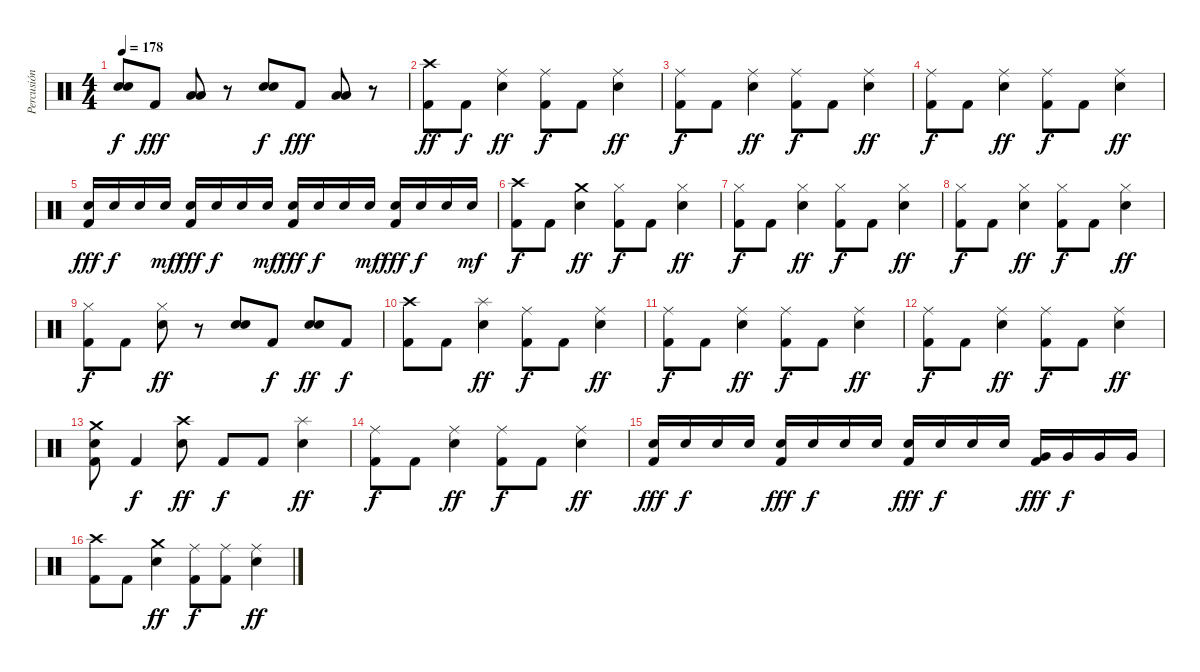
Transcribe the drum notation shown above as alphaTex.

\track ("Percusión" "Percusión") {instrument percussion}
\staff {score}
\articulation defaults
\ts (4 4)
\tempo 178
\clef neutral
\ks c
("Snare (hit) 2" "Snare (hit) 2").8{dy f} "Kick (hit) 2".8{dy fff} ("Low Tom (hit)" "Low Tom (hit)").8 r.8 ("Snare (hit) 2" "Snare (hit) 2").8{dy f} "Kick (hit) 2".8{dy fff} ("Low Tom (hit)" "Low Tom (hit)").8 r.8 |
("Crash high (hit)" "Kick (hit) 2").8{dy ff} "Kick (hit) 2".8{dy f} ("Ride (middle)" "Snare (hit) 2").4{dy ff} ("Ride (middle)" "Kick (hit) 2").8{dy f} "Kick (hit) 2".8 ("Ride (middle)" "Snare (hit) 2").4{dy ff} |
("Ride (middle)" "Kick (hit) 2").8{dy f} "Kick (hit) 2".8 ("Ride (middle)" "Snare (hit) 2").4{dy ff} ("Ride (middle)" "Kick (hit) 2").8{dy f} "Kick (hit) 2".8 ("Ride (middle)" "Snare (hit) 2").4{dy ff} |
("Ride (middle)" "Kick (hit) 2").8{dy f} "Kick (hit) 2".8 ("Ride (middle)" "Snare (hit) 2").4{dy ff} ("Ride (middle)" "Kick (hit) 2").8{dy f} "Kick (hit) 2".8 ("Ride (middle)" "Snare (hit) 2").4{dy ff} |
("Snare (hit) 2" "Kick (hit) 2").16{dy fff} "Snare (hit) 2".16{dy f} "Snare (hit) 2".16 "Snare (hit) 2".16{dy mf} ("Snare (hit) 2" "Kick (hit) 2").16{dy fff} "Snare (hit) 2".16{dy f} "Snare (hit) 2".16 "Snare (hit) 2".16{dy mf} ("Snare (hit) 2" "Kick (hit) 2").16{dy fff} "Snare (hit) 2".16{dy f} "Snare (hit) 2".16 "Snare (hit) 2".16{dy mf} ("Snare (hit) 2" "Kick (hit) 2").16{dy fff} "Snare (hit) 2".16{dy f} "Snare (hit) 2".16 "Snare (hit) 2".16{dy mf} |
("Crash high (hit)" "Kick (hit) 2").8{dy f} "Kick (hit) 2".8 ("Crash medium (hit)" "Snare (hit) 2").4{dy ff} ("Hi-Hat (closed)" "Kick (hit) 2").8{dy f} "Kick (hit) 2".8 ("Hi-Hat (closed)" "Snare (hit) 2").4{dy ff} |
("Hi-Hat (closed)" "Kick (hit) 2").8{dy f} "Kick (hit) 2".8 ("Hi-Hat (closed)" "Snare (hit) 2").4{dy ff} ("Hi-Hat (closed)" "Kick (hit) 2").8{dy f} "Kick (hit) 2".8 ("Hi-Hat (closed)" "Snare (hit) 2").4{dy ff} |
("Hi-Hat (closed)" "Kick (hit) 2").8{dy f} "Kick (hit) 2".8 ("Hi-Hat (closed)" "Snare (hit) 2").4{dy ff} ("Hi-Hat (closed)" "Kick (hit) 2").8{dy f} "Kick (hit) 2".8 ("Hi-Hat (closed)" "Snare (hit) 2").4{dy ff} |
("Hi-Hat (closed)" "Kick (hit) 2").8{dy f} "Kick (hit) 2".8 ("Hi-Hat (closed)" "Snare (hit) 2").8{dy ff} r.8 ("Snare (hit) 2" "Snare (hit) 2").8 "Kick (hit) 2".8{dy f} ("Snare (hit) 2" "Snare (hit) 2").8{dy ff} "Kick (hit) 2".8{dy f} |
("Crash high (hit)" "Kick (hit) 2").8 "Kick (hit) 2".8 ("Splash (hit)" "Snare (hit) 2").4{dy ff} ("Ride (middle)" "Kick (hit) 2").8{dy f} "Kick (hit) 2".8 ("Ride (middle)" "Snare (hit) 2").4{dy ff} |
("Ride (middle)" "Kick (hit) 2").8{dy f} "Kick (hit) 2".8 ("Ride (middle)" "Snare (hit) 2").4{dy ff} ("Ride (middle)" "Kick (hit) 2").8{dy f} "Kick (hit) 2".8 ("Ride (middle)" "Snare (hit) 2").4{dy ff} |
("Ride (middle)" "Kick (hit) 2").8{dy f} "Kick (hit) 2".8 ("Ride (middle)" "Snare (hit) 2").4{dy ff} ("Ride (middle)" "Kick (hit) 2").8{dy f} "Kick (hit) 2".8 ("Ride (middle)" "Snare (hit) 2").4{dy ff} |
("Kick (hit) 2" "Snare (hit) 2" "Crash medium (hit)").8 "Kick (hit) 2".4{dy f} ("Snare (hit) 2" "Crash high (hit)").8{dy ff} "Kick (hit) 2".8{dy f} "Kick (hit) 2".8 ("Splash (hit)" "Snare (hit) 2").4{dy ff} |
("Ride (middle)" "Kick (hit) 2").8{dy f} "Kick (hit) 2".8 ("Ride (middle)" "Snare (hit) 2").4{dy ff} ("Ride (middle)" "Kick (hit) 2").8{dy f} "Kick (hit) 2".8 ("Ride (middle)" "Snare (hit) 2").4{dy ff} |
("Snare (hit) 2" "Kick (hit) 2").16{dy fff} "Snare (hit) 2".16{dy f} "Snare (hit) 2".16 "Snare (hit) 2".16 ("Snare (hit) 2" "Kick (hit) 2").16{dy fff} "Snare (hit) 2".16{dy f} "Snare (hit) 2".16 "Snare (hit) 2".16 ("Snare (hit) 2" "Kick (hit) 2").16{dy fff} "Snare (hit) 2".16{dy f} "Snare (hit) 2".16 "Snare (hit) 2".16 ("Very Low Tom (hit)" "Kick (hit) 2").16{dy fff} "Very Low Tom (hit)".16{dy f} "Very Low Tom (hit)".16 "Very Low Tom (hit)".16 |
("Crash high (hit)" "Kick (hit) 2").8 "Kick (hit) 2".8 ("Crash medium (hit)" "Snare (hit) 2").4{dy ff} ("Ride (middle)" "Kick (hit) 2").8{dy f} ("Ride (middle)" "Kick (hit) 2").8 ("Ride (middle)" "Snare (hit) 2").4{dy ff}
